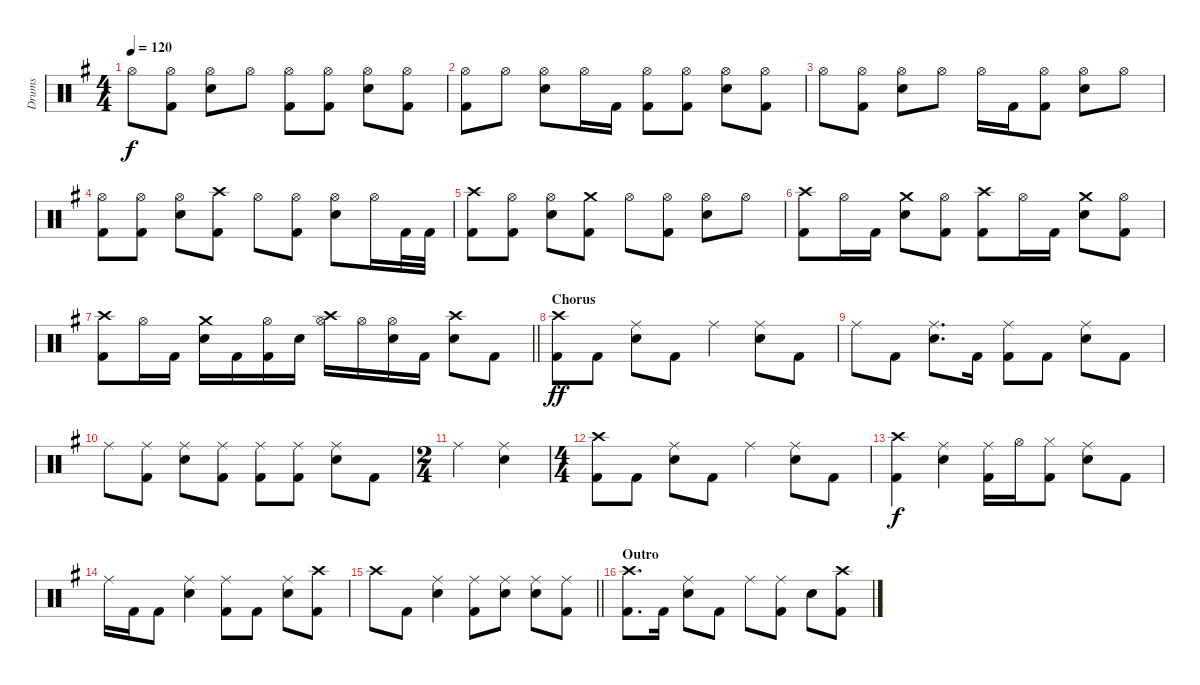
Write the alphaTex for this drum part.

\track ("Drums" "Drums") {instrument percussion}
\staff {score}
\articulation defaults
\ts (4 4)
\tempo 120
\clef neutral
\ks g "Hi-Hat (open)".8{dy f}
("Hi-Hat (open)" "Kick (hit) 2").8 ("Hi-Hat (open)" "Snare (hit) 2").8 "Hi-Hat (open)".8 ("Hi-Hat (open)" "Kick (hit) 2").8 ("Hi-Hat (open)" "Kick (hit) 2").8 ("Hi-Hat (open)" "Snare (hit) 2").8 ("Hi-Hat (open)" "Kick (hit) 2").8 |
("Hi-Hat (open)" "Kick (hit) 2").8 "Hi-Hat (open)".8 ("Hi-Hat (open)" "Snare (hit) 2").8 "Hi-Hat (open)".16 "Kick (hit) 2".16 ("Hi-Hat (open)" "Kick (hit) 2").8 ("Hi-Hat (open)" "Kick (hit) 2").8 ("Hi-Hat (open)" "Snare (hit) 2").8 ("Hi-Hat (open)" "Kick (hit) 2").8 |
"Hi-Hat (open)".8 ("Hi-Hat (open)" "Kick (hit) 2").8 ("Hi-Hat (open)" "Snare (hit) 2").8 "Hi-Hat (open)".8 "Hi-Hat (open)".16 "Kick (hit) 2".16 ("Hi-Hat (open)" "Kick (hit) 2").8 ("Hi-Hat (open)" "Snare (hit) 2").8 "Hi-Hat (open)".8 |
("Hi-Hat (open)" "Kick (hit) 2").8 ("Hi-Hat (open)" "Kick (hit) 2").8 ("Hi-Hat (open)" "Snare (hit) 2").8 ("Crash high (hit)" "Kick (hit) 2").8 "Hi-Hat (open)".8 ("Hi-Hat (open)" "Kick (hit) 2").8 ("Hi-Hat (open)" "Snare (hit) 2").8 "Hi-Hat (open)".16 "Kick (hit) 2".32 "Kick (hit) 2".32 |
("Crash high (hit)" "Kick (hit) 2").8 ("Hi-Hat (open)" "Kick (hit) 2").8 ("Hi-Hat (open)" "Snare (hit) 2").8 ("Crash medium (hit)" "Kick (hit) 2").8 "Hi-Hat (open)".8 ("Hi-Hat (open)" "Kick (hit) 2").8 ("Hi-Hat (open)" "Snare (hit) 2").8 "Hi-Hat (open)".8 |
("Crash high (hit)" "Kick (hit) 2").8 "Hi-Hat (open)".16 "Kick (hit) 2".16 ("Crash medium (hit)" "Snare (hit) 2").8 ("Hi-Hat (open)" "Kick (hit) 2").8 ("Crash high (hit)" "Kick (hit) 2").8 "Hi-Hat (open)".16 "Kick (hit) 2".16 ("Crash medium (hit)" "Snare (hit) 2").8 ("Hi-Hat (open)" "Kick (hit) 2").8 |
\barLineRight lightlight
("Crash high (hit)" "Kick (hit) 2").8 "Hi-Hat (open)".16 "Kick (hit) 2".16 ("Crash medium (hit)" "Snare (hit) 2").16 "Kick (hit) 2".16 ("Hi-Hat (open)" "Kick (hit) 2").16 "Snare (hit) 2".16 ("Crash high (hit)" "Hi-Hat (open)").16 "Hi-Hat (open)".16 ("Hi-Hat (open)" "Snare (hit) 2").16 "Kick (hit) 2".16 ("Crash high (hit)" "Snare (hit) 2").8 "Kick (hit) 2".8 |
\section ("" "Chorus")
("Crash high (hit)" "Kick (hit) 2").8{dy ff} "Kick (hit) 2".8 ("Ride (middle)" "Snare (hit) 2").8 "Kick (hit) 2".8 "Ride (middle)".4 ("Ride (middle)" "Snare (hit) 2").8 "Kick (hit) 2".8 |
"Ride (middle)".8 "Kick (hit) 2".8 ("Ride (middle)" "Snare (hit) 2").8{d} "Kick (hit) 2".16 ("Ride (middle)" "Kick (hit) 2").8 "Kick (hit) 2".8 ("Ride (middle)" "Snare (hit) 2").8 "Kick (hit) 2".8 |
"Ride (middle)".8 ("Ride (middle)" "Kick (hit) 2").8 ("Ride (middle)" "Snare (hit) 2").8 ("Ride (middle)" "Kick (hit) 2").8 ("Ride (middle)" "Kick (hit) 2").8 ("Ride (middle)" "Kick (hit) 2").8 ("Ride (middle)" "Snare (hit) 2").8 "Kick (hit) 2".8 |
\ts (2 4)
"Ride (middle)".4 ("Ride (middle)" "Snare (hit) 2").4 |
\ts (4 4)
("Crash high (hit)" "Kick (hit) 2").8 "Kick (hit) 2".8 ("Ride (middle)" "Snare (hit) 2").8 "Kick (hit) 2".8 "Ride (middle)".4 ("Ride (middle)" "Snare (hit) 2").8 "Kick (hit) 2".8 |
("Crash high (hit)" "Kick (hit) 2").4{dy f} ("Ride (middle)" "Snare (hit) 2").4 ("Ride (middle)" "Kick (hit) 2").16 "Hi-Hat (open)".16 ("Hi-Hat (closed)" "Kick (hit) 2").8 ("Ride (middle)" "Snare (hit) 2").8 "Kick (hit) 2".8 |
"Ride (middle)".16 "Kick (hit) 2".16 "Kick (hit) 2".8 ("Ride (middle)" "Snare (hit) 2").4 ("Ride (middle)" "Kick (hit) 2").8 "Kick (hit) 2".8 ("Ride (middle)" "Snare (hit) 2").8 ("Crash high (hit)" "Kick (hit) 2").8 |
\barLineRight lightlight "Crash high (hit)".8 "Kick (hit) 2".8
("Ride (middle)" "Snare (hit) 2").4 ("Ride (middle)" "Kick (hit) 2").8 ("Ride (middle)" "Snare (hit) 2").8 ("Ride (middle)" "Snare (hit) 2").8 ("Ride (middle)" "Kick (hit) 2").8 |
\section ("" "Outro")
("Crash high (hit)" "Kick (hit) 2").8{d} "Kick (hit) 2".16 ("Ride (middle)" "Snare (hit) 2").8 "Kick (hit) 2".8 "Ride (middle)".8 ("Ride (middle)" "Kick (hit) 2").8 "Snare (hit) 2".8 ("Crash high (hit)" "Kick (hit) 2").8
